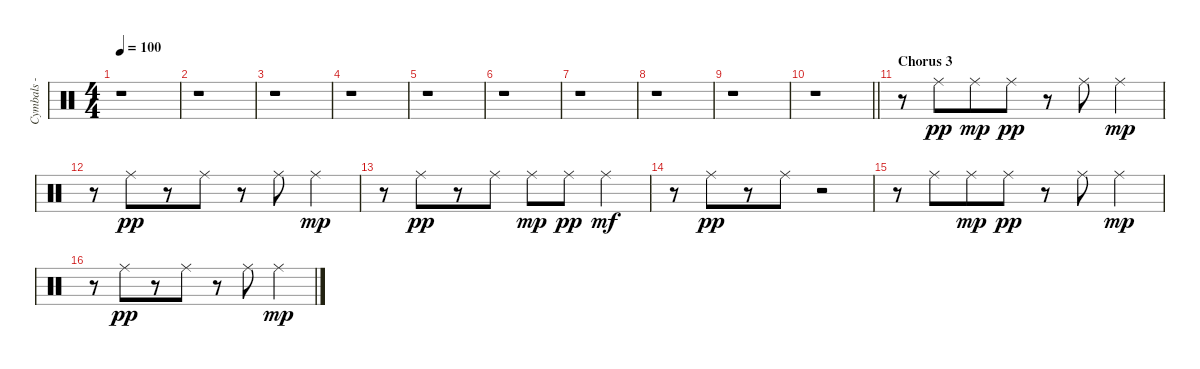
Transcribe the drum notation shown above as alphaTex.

\track ("Cymbals - ride" "Cymbals - ") {instrument percussion}
\staff {score}
\articulation defaults
\ts (4 4)
\tempo 100
\clef neutral
\ks c
r.1{dy mp} |
r.1 |
r.1 |
r.1 |
r.1 |
r.1 |
r.1 |
r.1 |
r.1 |
\barLineRight lightlight
r.1 |
\section ("" "Chorus 3")
r.8 "Ride (middle)".8{dy pp beam merge} "Ride (middle)".8{dy mp} "Ride (middle)".8{dy pp} r.8 "Ride (middle)".8 "Ride (middle)".4{dy mp} |
r.8 "Ride (middle)".8{dy pp beam merge} r.8 "Ride (middle)".8 r.8 "Ride (middle)".8 "Ride (middle)".4{dy mp} |
r.8 "Ride (middle)".8{dy pp beam merge} r.8 "Ride (middle)".8 "Ride (middle)".8{dy mp} "Ride (middle)".8{dy pp} "Ride (middle)".4{dy mf} |
r.8 "Ride (middle)".8{dy pp beam merge} r.8 "Ride (middle)".8 r.2 |
r.8 "Ride (middle)".8{beam merge} "Ride (middle)".8{dy mp} "Ride (middle)".8{dy pp} r.8 "Ride (middle)".8 "Ride (middle)".4{dy mp} |
r.8 "Ride (middle)".8{dy pp beam merge} r.8 "Ride (middle)".8 r.8 "Ride (middle)".8 "Ride (middle)".4{dy mp}
